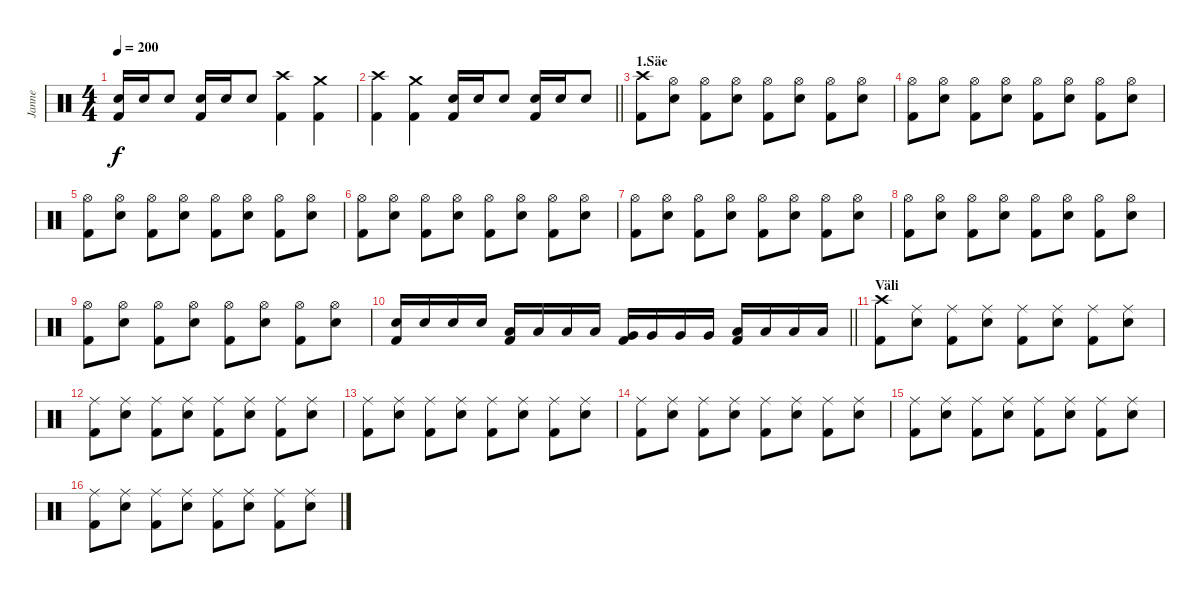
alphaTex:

\track ("Janne" "Janne") {instrument percussion}
\staff {score}
\articulation defaults
\ts (4 4)
\tempo 200
\clef neutral
\ks c
("Electric Snare (hit)" "Kick (hit) 2").16{dy f} "Electric Snare (hit)".16 "Electric Snare (hit)".8 ("Electric Snare (hit)" "Kick (hit) 2").16 "Electric Snare (hit)".16 "Electric Snare (hit)".8 ("Crash high (hit)" "Kick (hit) 2").4 ("Crash medium (hit)" "Kick (hit) 2").4 |
\barLineRight lightlight
("Crash high (hit)" "Kick (hit) 2").4 ("Crash medium (hit)" "Kick (hit) 2").4 ("Electric Snare (hit)" "Kick (hit) 2").16 "Electric Snare (hit)".16 "Electric Snare (hit)".8 ("Electric Snare (hit)" "Kick (hit) 2").16 "Electric Snare (hit)".16 "Electric Snare (hit)".8 |
\section ("" "1.Säe")
("Crash high (hit)" "Kick (hit) 2").8 ("Hi-Hat (open)" "Electric Snare (hit)").8 ("Hi-Hat (open)" "Kick (hit) 2").8 ("Hi-Hat (open)" "Electric Snare (hit)").8 ("Hi-Hat (open)" "Kick (hit) 2").8 ("Hi-Hat (open)" "Electric Snare (hit)").8 ("Hi-Hat (open)" "Kick (hit) 2").8 ("Hi-Hat (open)" "Electric Snare (hit)").8 |
("Hi-Hat (open)" "Kick (hit) 2").8 ("Hi-Hat (open)" "Electric Snare (hit)").8 ("Hi-Hat (open)" "Kick (hit) 2").8 ("Hi-Hat (open)" "Electric Snare (hit)").8 ("Hi-Hat (open)" "Kick (hit) 2").8 ("Hi-Hat (open)" "Electric Snare (hit)").8 ("Hi-Hat (open)" "Kick (hit) 2").8 ("Hi-Hat (open)" "Electric Snare (hit)").8 |
("Hi-Hat (open)" "Kick (hit) 2").8 ("Hi-Hat (open)" "Electric Snare (hit)").8 ("Hi-Hat (open)" "Kick (hit) 2").8 ("Hi-Hat (open)" "Electric Snare (hit)").8 ("Hi-Hat (open)" "Kick (hit) 2").8 ("Hi-Hat (open)" "Electric Snare (hit)").8 ("Hi-Hat (open)" "Kick (hit) 2").8 ("Hi-Hat (open)" "Electric Snare (hit)").8 |
("Hi-Hat (open)" "Kick (hit) 2").8 ("Hi-Hat (open)" "Electric Snare (hit)").8 ("Hi-Hat (open)" "Kick (hit) 2").8 ("Hi-Hat (open)" "Electric Snare (hit)").8 ("Hi-Hat (open)" "Kick (hit) 2").8 ("Hi-Hat (open)" "Electric Snare (hit)").8 ("Hi-Hat (open)" "Kick (hit) 2").8 ("Hi-Hat (open)" "Electric Snare (hit)").8 |
("Hi-Hat (open)" "Kick (hit) 2").8 ("Hi-Hat (open)" "Electric Snare (hit)").8 ("Hi-Hat (open)" "Kick (hit) 2").8 ("Hi-Hat (open)" "Electric Snare (hit)").8 ("Hi-Hat (open)" "Kick (hit) 2").8 ("Hi-Hat (open)" "Electric Snare (hit)").8 ("Hi-Hat (open)" "Kick (hit) 2").8 ("Hi-Hat (open)" "Electric Snare (hit)").8 |
("Hi-Hat (open)" "Kick (hit) 2").8 ("Hi-Hat (open)" "Electric Snare (hit)").8 ("Hi-Hat (open)" "Kick (hit) 2").8 ("Hi-Hat (open)" "Electric Snare (hit)").8 ("Hi-Hat (open)" "Kick (hit) 2").8 ("Hi-Hat (open)" "Electric Snare (hit)").8 ("Hi-Hat (open)" "Kick (hit) 2").8 ("Hi-Hat (open)" "Electric Snare (hit)").8 |
("Hi-Hat (open)" "Kick (hit) 2").8 ("Hi-Hat (open)" "Electric Snare (hit)").8 ("Hi-Hat (open)" "Kick (hit) 2").8 ("Hi-Hat (open)" "Electric Snare (hit)").8 ("Hi-Hat (open)" "Kick (hit) 2").8 ("Hi-Hat (open)" "Electric Snare (hit)").8 ("Hi-Hat (open)" "Kick (hit) 2").8 ("Hi-Hat (open)" "Electric Snare (hit)").8 |
\barLineRight lightlight
("Electric Snare (hit)" "Kick (hit) 2").16 "Electric Snare (hit)".16 "Electric Snare (hit)".16 "Electric Snare (hit)".16 ("Low Tom (hit)" "Kick (hit) 2").16 "Low Tom (hit)".16 "Low Tom (hit)".16 "Low Tom (hit)".16 ("Very Low Tom (hit)" "Kick (hit) 2").16 "Very Low Tom (hit)".16 "Very Low Tom (hit)".16 "Very Low Tom (hit)".16 ("Low Floor Tom (hit)" "Kick (hit) 2").16 "Low Floor Tom (hit)".16 "Low Floor Tom (hit)".16 "Low Floor Tom (hit)".16 |
\section ("" "Väli")
("Crash high (hit)" "Kick (hit) 2").8 ("Ride (middle)" "Electric Snare (hit)").8 ("Ride (middle)" "Kick (hit) 2").8 ("Ride (middle)" "Electric Snare (hit)").8 ("Ride (middle)" "Kick (hit) 2").8 ("Ride (middle)" "Electric Snare (hit)").8 ("Ride (middle)" "Kick (hit) 2").8 ("Ride (middle)" "Electric Snare (hit)").8 |
("Ride (middle)" "Kick (hit) 2").8 ("Ride (middle)" "Electric Snare (hit)").8 ("Ride (middle)" "Kick (hit) 2").8 ("Ride (middle)" "Electric Snare (hit)").8 ("Ride (middle)" "Kick (hit) 2").8 ("Ride (middle)" "Electric Snare (hit)").8 ("Ride (middle)" "Kick (hit) 2").8 ("Ride (middle)" "Electric Snare (hit)").8 |
("Ride (middle)" "Kick (hit) 2").8 ("Ride (middle)" "Electric Snare (hit)").8 ("Ride (middle)" "Kick (hit) 2").8 ("Ride (middle)" "Electric Snare (hit)").8 ("Ride (middle)" "Kick (hit) 2").8 ("Ride (middle)" "Electric Snare (hit)").8 ("Ride (middle)" "Kick (hit) 2").8 ("Ride (middle)" "Electric Snare (hit)").8 |
("Ride (middle)" "Kick (hit) 2").8 ("Ride (middle)" "Electric Snare (hit)").8 ("Ride (middle)" "Kick (hit) 2").8 ("Ride (middle)" "Electric Snare (hit)").8 ("Ride (middle)" "Kick (hit) 2").8 ("Ride (middle)" "Electric Snare (hit)").8 ("Ride (middle)" "Kick (hit) 2").8 ("Ride (middle)" "Electric Snare (hit)").8 |
("Ride (middle)" "Kick (hit) 2").8 ("Ride (middle)" "Electric Snare (hit)").8 ("Ride (middle)" "Kick (hit) 2").8 ("Ride (middle)" "Electric Snare (hit)").8 ("Ride (middle)" "Kick (hit) 2").8 ("Ride (middle)" "Electric Snare (hit)").8 ("Ride (middle)" "Kick (hit) 2").8 ("Ride (middle)" "Electric Snare (hit)").8 |
("Ride (middle)" "Kick (hit) 2").8 ("Ride (middle)" "Electric Snare (hit)").8 ("Ride (middle)" "Kick (hit) 2").8 ("Ride (middle)" "Electric Snare (hit)").8 ("Ride (middle)" "Kick (hit) 2").8 ("Ride (middle)" "Electric Snare (hit)").8 ("Ride (middle)" "Kick (hit) 2").8 ("Ride (middle)" "Electric Snare (hit)").8
